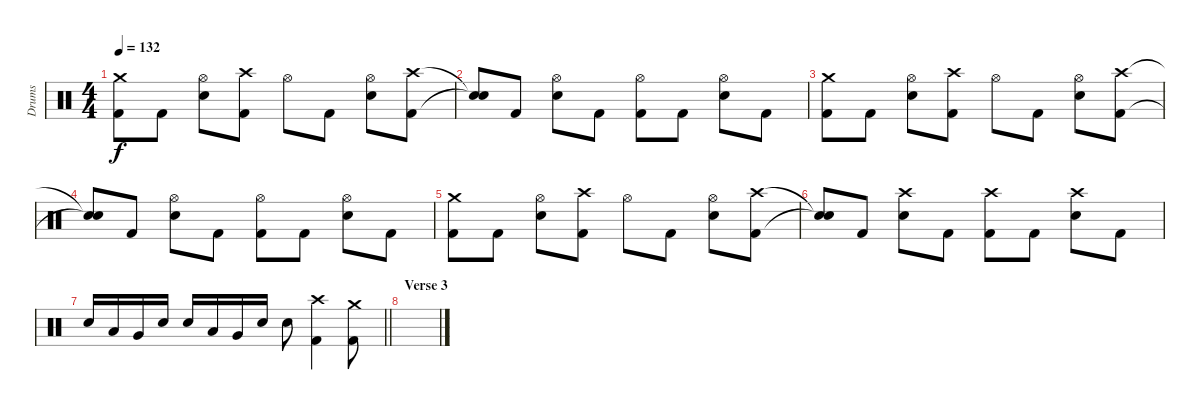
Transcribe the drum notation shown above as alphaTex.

\track ("Drums" "Drums") {instrument percussion}
\staff {score}
\articulation defaults
\ts (4 4)
\tempo 132
\clef neutral
\ks c
("Crash medium (hit)" "Kick (hit) 2").8{dy f} "Kick (hit) 2".8 ("Hi-Hat (open)" "Electric Snare (hit)").8 ("Crash high (hit)" "Kick (hit) 2").8 "Hi-Hat (open)".8 "Kick (hit) 2".8 ("Hi-Hat (open)" "Electric Snare (hit)").8 ("Crash high (hit)" "Kick (hit) 2").8 |
("Snare (hit)"{t} "Snare (hit)"{t}).8 "Kick (hit) 2".8 ("Hi-Hat (open)" "Electric Snare (hit)").8 "Kick (hit) 2".8 ("Hi-Hat (open)" "Kick (hit) 2").8 "Kick (hit) 2".8 ("Hi-Hat (open)" "Electric Snare (hit)").8 "Kick (hit) 2".8 |
("Crash medium (hit)" "Kick (hit) 2").8 "Kick (hit) 2".8 ("Hi-Hat (open)" "Electric Snare (hit)").8 ("Crash high (hit)" "Kick (hit) 2").8 "Hi-Hat (open)".8 "Kick (hit) 2".8 ("Hi-Hat (open)" "Electric Snare (hit)").8 ("Crash high (hit)" "Kick (hit) 2").8 |
("Snare (hit)"{t} "Snare (hit)"{t}).8 "Kick (hit) 2".8 ("Hi-Hat (open)" "Electric Snare (hit)").8 "Kick (hit) 2".8 ("Hi-Hat (open)" "Kick (hit) 2").8 "Kick (hit) 2".8 ("Hi-Hat (open)" "Electric Snare (hit)").8 "Kick (hit) 2".8 |
("Crash medium (hit)" "Kick (hit) 2").8 "Kick (hit) 2".8 ("Hi-Hat (open)" "Electric Snare (hit)").8 ("Crash high (hit)" "Kick (hit) 2").8 "Hi-Hat (open)".8 "Kick (hit) 2".8 ("Hi-Hat (open)" "Electric Snare (hit)").8 ("Crash high (hit)" "Kick (hit) 2").8 |
("Snare (hit)"{t} "Snare (hit)"{t}).8 "Kick (hit) 2".8 ("Crash high (hit)" "Electric Snare (hit)").8 "Kick (hit) 2".8 ("Crash high (hit)" "Kick (hit) 2").8 "Kick (hit) 2".8 ("Crash high (hit)" "Electric Snare (hit)").8 "Kick (hit) 2".8 |
\barLineRight lightlight "Electric Snare (hit)".16 "Low Tom (hit)".16 "Very Low Tom (hit)".16 "Electric Snare (hit)".16 "Electric Snare (hit)".16 "Low Tom (hit)".16 "Very Low Tom (hit)".16 "Electric Snare (hit)".16 "Electric Snare (hit)".8
("Crash high (hit)" "Kick (hit) 2").4 ("Crash medium (hit)" "Kick (hit) 2").8 |
\section ("" "Verse 3")
